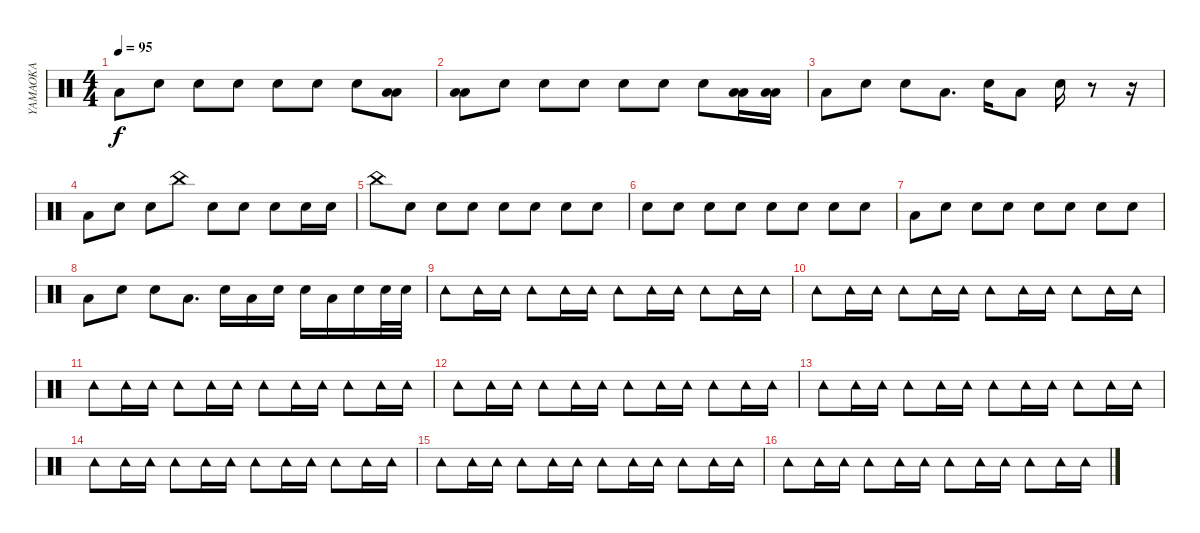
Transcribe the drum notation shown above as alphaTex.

\track ("YAMAOKA" "YAMAOKA") {instrument percussion}
\staff {score}
\articulation defaults
\ts (4 4)
\tempo 95
\clef neutral
\ks c "Low Floor Tom (hit)"{x}.8{dy f} "Snare (hit)"{x}.8 "Electric Snare (hit)".8 "Snare (hit)"{x}.8 "Snare (hit)"{x}.8 "Snare (hit)"{x}.8 "Electric Snare (hit)"{x}.8
("Low Tom (hit)" "Low Floor Tom (hit)").8{volume 16} |
("Low Tom (hit)" "Low Floor Tom (hit)").8 "Snare (hit)"{x}.8{volume 14} "Electric Snare (hit)".8 "Snare (hit)"{x}.8 "Snare (hit)"{x}.8 "Snare (hit)"{x}.8 "Electric Snare (hit)".8 ("Low Tom (hit)" "Low Floor Tom (hit)").16 ("Low Tom (hit)" "Low Floor Tom (hit)").16 |
"Low Floor Tom (hit)".8 "Snare (hit)"{x}.8 "Electric Snare (hit)".8 "Low Floor Tom (hit)".8{d} "Electric Snare (hit)".16 "Low Floor Tom (hit)".8 "Electric Snare (hit)".16 r.8 r.16 |
"Low Floor Tom (hit)"{x}.8 "Snare (hit)"{x}.8 "Electric Snare (hit)".8 "China (hit)".8{volume 12} "Snare (hit)"{x}.8{volume 14} "Electric Snare (hit)"{x}.8 "Electric Snare (hit)".8 "Electric Snare (hit)".16 "Electric Snare (hit)".16 |
"China (hit)".8{volume 12} "Snare (hit)"{x}.8{volume 14} "Electric Snare (hit)".8 "Snare (hit)"{x}.8 "Snare (hit)"{x}.8 "Snare (hit)"{x}.8 "Electric Snare (hit)".8 "Snare (hit) 2"{x}.8 |
"Snare (hit) 2"{x}.8 "Snare (hit)"{x}.8 "Electric Snare (hit)".8 "Snare (hit)"{x}.8 "Snare (hit)"{x}.8 "Snare (hit)"{x}.8 "Electric Snare (hit)".8 "Snare (hit)"{x}.8 |
"Low Floor Tom (hit)"{x}.8 "Snare (hit)"{x}.8 "Electric Snare (hit)".8 "Snare (hit)"{x}.8 "Snare (hit)"{x}.8 "Snare (hit)"{x}.8 "Electric Snare (hit)".8 "Snare (hit)"{x}.8 |
"Low Floor Tom (hit)".8 "Snare (hit)"{x}.8 "Electric Snare (hit)".8 "Low Floor Tom (hit)".8{d volume 16} "Electric Snare (hit)".16 "Low Floor Tom (hit)".16 "Electric Snare (hit)".16 "Electric Snare (hit)".16 "Low Floor Tom (hit)".16 "Electric Snare (hit)".16 "Electric Snare (hit)".32 "Electric Snare (hit)".32 |
"Tambourine (hit)".8{volume 14} "Tambourine (hit)".16 "Tambourine (hit)".16 "Tambourine (hit)".8 "Tambourine (hit)".16 "Tambourine (hit)".16 "Tambourine (hit)".8 "Tambourine (hit)".16 "Tambourine (hit)".16 "Tambourine (hit)".8 "Tambourine (hit)".16 "Tambourine (hit)".16 |
"Tambourine (hit)".8 "Tambourine (hit)".16 "Tambourine (hit)".16 "Tambourine (hit)".8 "Tambourine (hit)".16 "Tambourine (hit)".16 "Tambourine (hit)".8 "Tambourine (hit)".16 "Tambourine (hit)".16 "Tambourine (hit)".8 "Tambourine (hit)".16 "Tambourine (hit)".16 |
"Tambourine (hit)".8 "Tambourine (hit)".16 "Tambourine (hit)".16 "Tambourine (hit)".8 "Tambourine (hit)".16 "Tambourine (hit)".16 "Tambourine (hit)".8 "Tambourine (hit)".16 "Tambourine (hit)".16 "Tambourine (hit)".8 "Tambourine (hit)".16 "Tambourine (hit)".16 |
"Tambourine (hit)".8 "Tambourine (hit)".16 "Tambourine (hit)".16 "Tambourine (hit)".8 "Tambourine (hit)".16 "Tambourine (hit)".16 "Tambourine (hit)".8 "Tambourine (hit)".16 "Tambourine (hit)".16 "Tambourine (hit)".8 "Tambourine (hit)".16 "Tambourine (hit)".16 |
"Tambourine (hit)".8 "Tambourine (hit)".16 "Tambourine (hit)".16 "Tambourine (hit)".8 "Tambourine (hit)".16 "Tambourine (hit)".16 "Tambourine (hit)".8 "Tambourine (hit)".16 "Tambourine (hit)".16 "Tambourine (hit)".8 "Tambourine (hit)".16 "Tambourine (hit)".16 |
"Tambourine (hit)".8 "Tambourine (hit)".16 "Tambourine (hit)".16 "Tambourine (hit)".8 "Tambourine (hit)".16 "Tambourine (hit)".16 "Tambourine (hit)".8 "Tambourine (hit)".16 "Tambourine (hit)".16 "Tambourine (hit)".8 "Tambourine (hit)".16 "Tambourine (hit)".16 |
"Tambourine (hit)".8 "Tambourine (hit)".16 "Tambourine (hit)".16 "Tambourine (hit)".8 "Tambourine (hit)".16 "Tambourine (hit)".16 "Tambourine (hit)".8 "Tambourine (hit)".16 "Tambourine (hit)".16 "Tambourine (hit)".8 "Tambourine (hit)".16 "Tambourine (hit)".16 |
"Tambourine (hit)".8 "Tambourine (hit)".16 "Tambourine (hit)".16 "Tambourine (hit)".8 "Tambourine (hit)".16 "Tambourine (hit)".16 "Tambourine (hit)".8 "Tambourine (hit)".16 "Tambourine (hit)".16 "Tambourine (hit)".8 "Tambourine (hit)".16 "Tambourine (hit)".16
